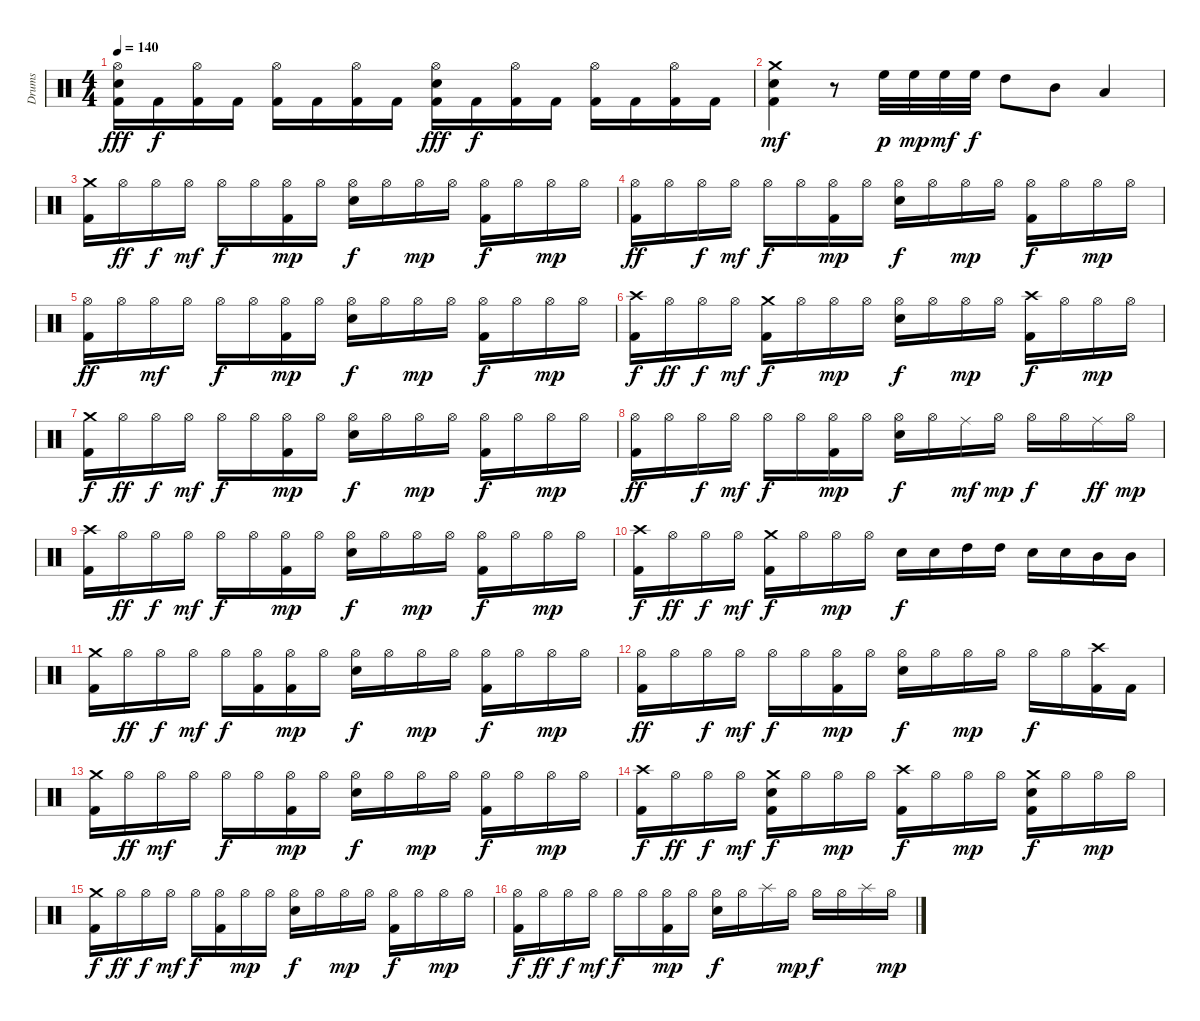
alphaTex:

\track ("Drums" "Drums") {instrument percussion}
\staff {score}
\articulation defaults
\ts (4 4)
\tempo 140
\clef neutral
\ks c
("Hi-Hat (open)" "Electric Snare (hit)" "Kick (hit) 2").16{dy fff} "Kick (hit) 2".16{dy f} ("Hi-Hat (open)" "Kick (hit) 2").16 "Kick (hit) 2".16 ("Hi-Hat (open)" "Kick (hit) 2").16 "Kick (hit) 2".16 ("Hi-Hat (open)" "Kick (hit) 2").16 "Kick (hit) 2".16 ("Hi-Hat (open)" "Electric Snare (hit)" "Kick (hit) 2").16{dy fff} "Kick (hit) 2".16{dy f} ("Hi-Hat (open)" "Kick (hit) 2").16 "Kick (hit) 2".16 ("Hi-Hat (open)" "Kick (hit) 2").16 "Kick (hit) 2".16 ("Hi-Hat (open)" "Kick (hit) 2").16 "Kick (hit) 2".16 |
("Crash medium (hit)" "Electric Snare (hit)" "Kick (hit) 2").4{dy mf} r.8 "High Floor Tom (hit)".32{dy p} "High Floor Tom (hit)".32{dy mp} "High Floor Tom (hit)".32{dy mf} "High Floor Tom (hit)".32{dy f} "High Tom (hit)".8 "Mid Tom (hit)".8 "Low Tom (hit)".4 |
("Crash medium (hit)" "Kick (hit) 2").16 "Hi-Hat (open)".16{dy ff} "Hi-Hat (open)".16{dy f} "Hi-Hat (open)".16{dy mf} "Hi-Hat (open)".16{dy f} "Hi-Hat (open)".16 ("Hi-Hat (open)" "Kick (hit) 2").16{dy mp} "Hi-Hat (open)".16 ("Hi-Hat (open)" "Electric Snare (hit)").16{dy f} "Hi-Hat (open)".16 "Hi-Hat (open)".16{dy mp} "Hi-Hat (open)".16 ("Hi-Hat (open)" "Kick (hit) 2").16{dy f} "Hi-Hat (open)".16 "Hi-Hat (open)".16{dy mp} "Hi-Hat (open)".16 |
("Hi-Hat (open)" "Kick (hit) 2").16{dy ff} "Hi-Hat (open)".16 "Hi-Hat (open)".16{dy f} "Hi-Hat (open)".16{dy mf} "Hi-Hat (open)".16{dy f} "Hi-Hat (open)".16 ("Hi-Hat (open)" "Kick (hit) 2").16{dy mp} "Hi-Hat (open)".16 ("Hi-Hat (open)" "Electric Snare (hit)").16{dy f} "Hi-Hat (open)".16 "Hi-Hat (open)".16{dy mp} "Hi-Hat (open)".16 ("Hi-Hat (open)" "Kick (hit) 2").16{dy f} "Hi-Hat (open)".16 "Hi-Hat (open)".16{dy mp} "Hi-Hat (open)".16 |
("Hi-Hat (open)" "Kick (hit) 2").16{dy ff} "Hi-Hat (open)".16 "Hi-Hat (open)".16{dy mf} "Hi-Hat (open)".16 "Hi-Hat (open)".16{dy f} "Hi-Hat (open)".16 ("Hi-Hat (open)" "Kick (hit) 2").16{dy mp} "Hi-Hat (open)".16 ("Hi-Hat (open)" "Electric Snare (hit)").16{dy f} "Hi-Hat (open)".16 "Hi-Hat (open)".16{dy mp} "Hi-Hat (open)".16 ("Hi-Hat (open)" "Kick (hit) 2").16{dy f} "Hi-Hat (open)".16 "Hi-Hat (open)".16{dy mp} "Hi-Hat (open)".16 |
("Crash high (hit)" "Kick (hit) 2").16{dy f} "Hi-Hat (open)".16{dy ff} "Hi-Hat (open)".16{dy f} "Hi-Hat (open)".16{dy mf} ("Crash medium (hit)" "Kick (hit) 2").16{dy f} "Hi-Hat (open)".16 "Hi-Hat (open)".16{dy mp} "Hi-Hat (open)".16 ("Hi-Hat (open)" "Electric Snare (hit)").16{dy f} "Hi-Hat (open)".16 "Hi-Hat (open)".16{dy mp} "Hi-Hat (open)".16 ("Crash high (hit)" "Kick (hit) 2").16{dy f} "Hi-Hat (open)".16 "Hi-Hat (open)".16{dy mp} "Hi-Hat (open)".16 |
("Crash medium (hit)" "Kick (hit) 2").16{dy f} "Hi-Hat (open)".16{dy ff} "Hi-Hat (open)".16{dy f} "Hi-Hat (open)".16{dy mf} "Hi-Hat (open)".16{dy f} "Hi-Hat (open)".16 ("Hi-Hat (open)" "Kick (hit) 2").16{dy mp} "Hi-Hat (open)".16 ("Hi-Hat (open)" "Electric Snare (hit)").16{dy f} "Hi-Hat (open)".16 "Hi-Hat (open)".16{dy mp} "Hi-Hat (open)".16 ("Hi-Hat (open)" "Kick (hit) 2").16{dy f} "Hi-Hat (open)".16 "Hi-Hat (open)".16{dy mp} "Hi-Hat (open)".16 |
("Hi-Hat (open)" "Kick (hit) 2").16{dy ff} "Hi-Hat (open)".16 "Hi-Hat (open)".16{dy f} "Hi-Hat (open)".16{dy mf} "Hi-Hat (open)".16{dy f} "Hi-Hat (open)".16 ("Hi-Hat (open)" "Kick (hit) 2").16{dy mp} "Hi-Hat (open)".16 ("Hi-Hat (open)" "Electric Snare (hit)").16{dy f} "Hi-Hat (open)".16 "Ride (middle)".16{dy mf} "Hi-Hat (open)".16{dy mp} "Hi-Hat (open)".16{dy f} "Hi-Hat (open)".16 "Ride (middle)".16{dy ff} "Hi-Hat (open)".16{dy mp} |
("Crash high (hit)" "Kick (hit) 2").16 "Hi-Hat (open)".16{dy ff} "Hi-Hat (open)".16{dy f} "Hi-Hat (open)".16{dy mf} "Hi-Hat (open)".16{dy f} "Hi-Hat (open)".16 ("Hi-Hat (open)" "Kick (hit) 2").16{dy mp} "Hi-Hat (open)".16 ("Hi-Hat (open)" "Electric Snare (hit)").16{dy f} "Hi-Hat (open)".16 "Hi-Hat (open)".16{dy mp} "Hi-Hat (open)".16 ("Hi-Hat (open)" "Kick (hit) 2").16{dy f} "Hi-Hat (open)".16 "Hi-Hat (open)".16{dy mp} "Hi-Hat (open)".16 |
("Crash high (hit)" "Kick (hit) 2").16{dy f} "Hi-Hat (open)".16{dy ff} "Hi-Hat (open)".16{dy f} "Hi-Hat (open)".16{dy mf} ("Crash medium (hit)" "Kick (hit) 2").16{dy f} "Hi-Hat (open)".16 "Hi-Hat (open)".16{dy mp} "Hi-Hat (open)".16 "Electric Snare (hit)".16{dy f} "Electric Snare (hit)".16 "High Tom (hit)".16 "High Tom (hit)".16 "Electric Snare (hit)".16 "Electric Snare (hit)".16 "Mid Tom (hit)".16 "Mid Tom (hit)".16 |
("Crash medium (hit)" "Kick (hit) 2").16 "Hi-Hat (open)".16{dy ff} "Hi-Hat (open)".16{dy f} "Hi-Hat (open)".16{dy mf} "Hi-Hat (open)".16{dy f} ("Hi-Hat (open)" "Kick (hit) 2").16 ("Hi-Hat (open)" "Kick (hit) 2").16{dy mp} "Hi-Hat (open)".16 ("Hi-Hat (open)" "Electric Snare (hit)").16{dy f} "Hi-Hat (open)".16 "Hi-Hat (open)".16{dy mp} "Hi-Hat (open)".16 ("Hi-Hat (open)" "Kick (hit) 2").16{dy f} "Hi-Hat (open)".16 "Hi-Hat (open)".16{dy mp} "Hi-Hat (open)".16 |
("Hi-Hat (open)" "Kick (hit) 2").16{dy ff} "Hi-Hat (open)".16 "Hi-Hat (open)".16{dy f} "Hi-Hat (open)".16{dy mf} "Hi-Hat (open)".16{dy f} "Hi-Hat (open)".16 ("Hi-Hat (open)" "Kick (hit) 2").16{dy mp} "Hi-Hat (open)".16 ("Hi-Hat (open)" "Electric Snare (hit)").16{dy f} "Hi-Hat (open)".16 "Hi-Hat (open)".16{dy mp} "Hi-Hat (open)".16 "Hi-Hat (open)".16{dy f} "Hi-Hat (open)".16 ("Crash high (hit)" "Kick (hit) 2").16 "Kick (hit) 2".16 |
("Crash medium (hit)" "Kick (hit) 2").16 "Hi-Hat (open)".16{dy ff} "Hi-Hat (open)".16{dy mf} "Hi-Hat (open)".16 "Hi-Hat (open)".16{dy f} "Hi-Hat (open)".16 ("Hi-Hat (open)" "Kick (hit) 2").16{dy mp} "Hi-Hat (open)".16 ("Hi-Hat (open)" "Electric Snare (hit)").16{dy f} "Hi-Hat (open)".16 "Hi-Hat (open)".16{dy mp} "Hi-Hat (open)".16 ("Hi-Hat (open)" "Kick (hit) 2").16{dy f} "Hi-Hat (open)".16 "Hi-Hat (open)".16{dy mp} "Hi-Hat (open)".16 |
("Crash high (hit)" "Kick (hit) 2").16{dy f} "Hi-Hat (open)".16{dy ff} "Hi-Hat (open)".16{dy f} "Hi-Hat (open)".16{dy mf} ("Crash medium (hit)" "Electric Snare (hit)" "Kick (hit) 2").16{dy f} "Hi-Hat (open)".16 "Hi-Hat (open)".16{dy mp} "Hi-Hat (open)".16 ("Crash high (hit)" "Kick (hit) 2").16{dy f} "Hi-Hat (open)".16 "Hi-Hat (open)".16{dy mp} "Hi-Hat (open)".16 ("Crash medium (hit)" "Electric Snare (hit)" "Kick (hit) 2").16{dy f} "Hi-Hat (open)".16 "Hi-Hat (open)".16{dy mp} "Hi-Hat (open)".16 |
("Crash medium (hit)" "Kick (hit) 2").16{dy f} "Hi-Hat (open)".16{dy ff} "Hi-Hat (open)".16{dy f} "Hi-Hat (open)".16{dy mf} "Hi-Hat (open)".16{dy f} ("Hi-Hat (open)" "Kick (hit) 2").16 "Hi-Hat (open)".16{dy mp} "Hi-Hat (open)".16 ("Hi-Hat (open)" "Electric Snare (hit)").16{dy f} "Hi-Hat (open)".16 "Hi-Hat (open)".16{dy mp} "Hi-Hat (open)".16 ("Hi-Hat (open)" "Kick (hit) 2").16{dy f} "Hi-Hat (open)".16 "Hi-Hat (open)".16{dy mp} "Hi-Hat (open)".16 |
("Hi-Hat (open)" "Kick (hit) 2").16{dy f} "Hi-Hat (open)".16{dy ff} "Hi-Hat (open)".16{dy f} "Hi-Hat (open)".16{dy mf} "Hi-Hat (open)".16{dy f} "Hi-Hat (open)".16 ("Hi-Hat (open)" "Kick (hit) 2").16{dy mp} "Hi-Hat (open)".16 ("Hi-Hat (open)" "Electric Snare (hit)").16{dy f} "Hi-Hat (open)".16 "Splash (hit)".16 "Hi-Hat (open)".16{dy mp} "Hi-Hat (open)".16{dy f} "Hi-Hat (open)".16 "Splash (hit)".16 "Hi-Hat (open)".16{dy mp}
